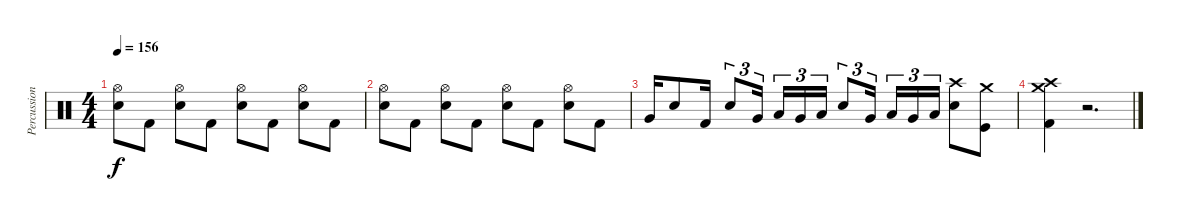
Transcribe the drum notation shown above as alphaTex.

\track ("Percussion" "Percussion") {instrument percussion}
\staff {score}
\articulation defaults
\ts (4 4)
\tempo 156
\clef neutral
\ks c
("Hi-Hat (open)" "Electric Snare (hit)").8{dy f} "Kick (hit) 2".8 ("Hi-Hat (open)" "Electric Snare (hit)").8 "Kick (hit) 2".8 ("Hi-Hat (open)" "Electric Snare (hit)").8 "Kick (hit) 2".8 ("Hi-Hat (open)" "Electric Snare (hit)").8 "Kick (hit) 2".8 |
("Hi-Hat (open)" "Electric Snare (hit)").8 "Kick (hit) 2".8 ("Hi-Hat (open)" "Electric Snare (hit)").8 "Kick (hit) 2".8 ("Hi-Hat (open)" "Electric Snare (hit)").8 "Kick (hit) 2".8 ("Hi-Hat (open)" "Electric Snare (hit)").8 "Kick (hit) 2".8 |
"Very Low Tom (hit)".16 "Electric Snare (hit)".8 "Kick (hit) 2".16 "Electric Snare (hit)".8{tu (3 2)} "Very Low Tom (hit)".16{tu (3 2)} "Low Floor Tom (hit)".16{tu (3 2)} "Very Low Tom (hit)".16{tu (3 2)} "Low Floor Tom (hit)".16{tu (3 2)} "Electric Snare (hit)".8{tu (3 2)} "Very Low Tom (hit)".16{tu (3 2)} "Low Floor Tom (hit)".16{tu (3 2)} "Very Low Tom (hit)".16{tu (3 2)} "Low Floor Tom (hit)".16{tu (3 2)} ("Crash high (hit)" "Electric Snare (hit)").8 ("Crash medium (hit)" "Kick (hit)").8 |
("Crash medium (hit)" "Crash high (hit)" "Kick (hit) 2").4 r.2{d}
